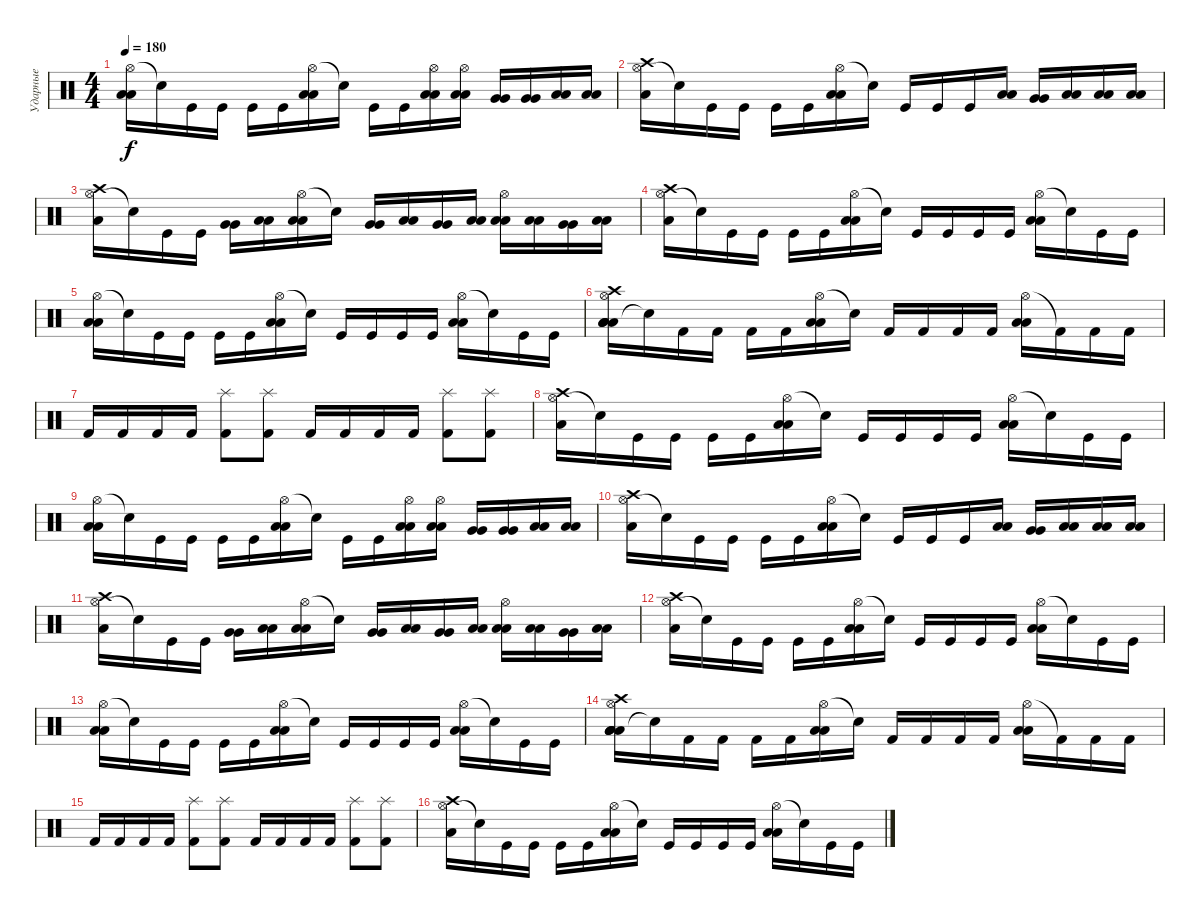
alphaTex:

\track ("Ударные" "Ударные") {instrument percussion}
\staff {score}
\articulation defaults
\ts (4 4)
\tempo 180
\clef neutral
\ks c
("Hi-Hat (open)" "Low Tom (hit)" "Low Tom (hit)").16{dy f} "Snare (hit)"{t}.16 "Kick (hit)".16 "Kick (hit)".16 "Kick (hit)".16 "Kick (hit)".16 ("Hi-Hat (open)" "Low Tom (hit)" "Low Tom (hit)").16 "Snare (hit)"{t}.16 "Kick (hit)".16 "Kick (hit)".16 ("Hi-Hat (open)" "Low Tom (hit)" "Low Tom (hit)").16 ("Hi-Hat (open)" "Low Tom (hit)" "Low Tom (hit)").16 ("Very Low Tom (hit)" "Very Low Tom (hit)").16{balance 10} ("Very Low Tom (hit)" "Very Low Tom (hit)").16 ("Low Floor Tom (hit)" "Low Floor Tom (hit)").16{balance 6} ("Low Floor Tom (hit)" "Low Floor Tom (hit)").16 |
("Hi-Hat (open)" "Crash high (hit)" "Low Tom (hit)").16{balance 8} "Snare (hit)"{t}.16 "Kick (hit)".16 "Kick (hit)".16 "Kick (hit)".16 "Kick (hit)".16 ("Hi-Hat (open)" "Low Tom (hit)" "Low Tom (hit)").16 "Snare (hit)"{t}.16 "Kick (hit)".16 "Kick (hit)".16 "Kick (hit)".16 ("Low Tom (hit)" "Low Tom (hit)").16 ("Very Low Tom (hit)" "Very Low Tom (hit)").16{balance 10} ("Low Floor Tom (hit)" "Low Floor Tom (hit)").16{balance 6} ("Low Floor Tom (hit)" "Low Floor Tom (hit)").16 ("Low Floor Tom (hit)" "Low Floor Tom (hit)").16 |
("Hi-Hat (open)" "Crash high (hit)" "Low Tom (hit)").16{volume 13 balance 8} "Snare (hit)"{t}.16 "Kick (hit)".16 "Kick (hit)".16 ("Very Low Tom (hit)" "Very Low Tom (hit)").16{balance 10} ("Low Floor Tom (hit)" "Low Floor Tom (hit)").16{balance 5} ("Hi-Hat (open)" "Low Tom (hit)" "Low Tom (hit)").16{balance 8} "Snare (hit)"{t}.16 ("Very Low Tom (hit)" "Very Low Tom (hit)").16{balance 10} ("Low Floor Tom (hit)" "Low Floor Tom (hit)").16 ("Very Low Tom (hit)" "Very Low Tom (hit)").16{balance 10} ("Low Floor Tom (hit)" "Low Floor Tom (hit)").16 ("Hi-Hat (open)" "Low Tom (hit)" "Low Tom (hit)").16{balance 8} ("Low Floor Tom (hit)" "Low Floor Tom (hit)").16{balance 6} ("Very Low Tom (hit)" "Very Low Tom (hit)").16 ("Low Floor Tom (hit)" "Low Floor Tom (hit)").16{balance 5} |
("Hi-Hat (open)" "Crash high (hit)" "Low Tom (hit)").16{volume 13} "Snare (hit)"{t}.16 "Kick (hit)".16 "Kick (hit)".16 "Kick (hit)".16 "Kick (hit)".16 ("Hi-Hat (open)" "Low Tom (hit)" "Low Tom (hit)").16 "Snare (hit)"{t}.16 "Kick (hit)".16 "Kick (hit)".16 "Kick (hit)".16 "Kick (hit)".16 ("Hi-Hat (open)" "Low Tom (hit)" "Low Tom (hit)").16 "Snare (hit)"{t}.16 "Kick (hit)".16 "Kick (hit)".16 |
("Hi-Hat (open)" "Low Tom (hit)" "Low Tom (hit)").16 "Snare (hit)"{t}.16 "Kick (hit)".16 "Kick (hit)".16 "Kick (hit)".16 "Kick (hit)".16 ("Hi-Hat (open)" "Low Tom (hit)" "Low Tom (hit)").16 "Snare (hit)"{t}.16 "Kick (hit)".16 "Kick (hit)".16 "Kick (hit)".16 "Kick (hit)".16 ("Hi-Hat (open)" "Low Tom (hit)" "Low Tom (hit)").16 "Snare (hit)"{t}.16 "Kick (hit)".16 "Kick (hit)".16 |
("Low Floor Tom (hit)" "Hi-Hat (open)" "Crash high (hit)" "Low Tom (hit)" "Low Floor Tom (hit)" "Low Floor Tom (hit)").16 "Snare (hit)"{t}.16 "Kick (hit) 2".16 "Kick (hit) 2".16 "Kick (hit) 2".16 "Kick (hit) 2".16 ("Hi-Hat (open)" "Low Tom (hit)" "Low Tom (hit)").16 "Snare (hit)"{t}.16 "Kick (hit) 2".16 "Kick (hit) 2".16 "Kick (hit) 2".16 "Kick (hit) 2".16 ("Hi-Hat (open)" "Low Tom (hit)" "Low Tom (hit)").16 "Kick (hit) 2"{t}.16 "Kick (hit) 2".16 "Kick (hit) 2".16 |
"Kick (hit) 2".16 "Kick (hit) 2".16 "Kick (hit) 2".16 "Kick (hit) 2".16 ("Splash (hit)" "Kick (hit) 2").8 ("Splash (hit)" "Kick (hit) 2").8 "Kick (hit) 2".16 "Kick (hit) 2".16 "Kick (hit) 2".16 "Kick (hit) 2".16 ("Splash (hit)" "Kick (hit) 2").8 ("Splash (hit)" "Kick (hit) 2").8 |
("Hi-Hat (open)" "Crash high (hit)" "Low Tom (hit)").16{volume 13} "Snare (hit)"{t}.16 "Kick (hit)".16 "Kick (hit)".16 "Kick (hit)".16 "Kick (hit)".16 ("Hi-Hat (open)" "Low Tom (hit)" "Low Tom (hit)").16 "Snare (hit)"{t}.16 "Kick (hit)".16 "Kick (hit)".16 "Kick (hit)".16 "Kick (hit)".16 ("Hi-Hat (open)" "Low Tom (hit)" "Low Tom (hit)").16 "Snare (hit)"{t}.16 "Kick (hit)".16 "Kick (hit)".16 |
("Hi-Hat (open)" "Low Tom (hit)" "Low Tom (hit)").16 "Snare (hit)"{t}.16 "Kick (hit)".16 "Kick (hit)".16 "Kick (hit)".16 "Kick (hit)".16 ("Hi-Hat (open)" "Low Tom (hit)" "Low Tom (hit)").16 "Snare (hit)"{t}.16 "Kick (hit)".16 "Kick (hit)".16 ("Hi-Hat (open)" "Low Tom (hit)" "Low Tom (hit)").16 ("Hi-Hat (open)" "Low Tom (hit)" "Low Tom (hit)").16 ("Very Low Tom (hit)" "Very Low Tom (hit)").16{balance 10} ("Very Low Tom (hit)" "Very Low Tom (hit)").16 ("Low Floor Tom (hit)" "Low Floor Tom (hit)").16{balance 6} ("Low Floor Tom (hit)" "Low Floor Tom (hit)").16 |
("Hi-Hat (open)" "Crash high (hit)" "Low Tom (hit)").16{balance 8} "Snare (hit)"{t}.16 "Kick (hit)".16 "Kick (hit)".16 "Kick (hit)".16 "Kick (hit)".16 ("Hi-Hat (open)" "Low Tom (hit)" "Low Tom (hit)").16 "Snare (hit)"{t}.16 "Kick (hit)".16 "Kick (hit)".16 "Kick (hit)".16 ("Low Tom (hit)" "Low Tom (hit)").16 ("Very Low Tom (hit)" "Very Low Tom (hit)").16{balance 10} ("Low Floor Tom (hit)" "Low Floor Tom (hit)").16{balance 6} ("Low Floor Tom (hit)" "Low Floor Tom (hit)").16 ("Low Floor Tom (hit)" "Low Floor Tom (hit)").16 |
("Hi-Hat (open)" "Crash high (hit)" "Low Tom (hit)").16{volume 13 balance 8} "Snare (hit)"{t}.16 "Kick (hit)".16 "Kick (hit)".16 ("Very Low Tom (hit)" "Very Low Tom (hit)").16{balance 10} ("Low Floor Tom (hit)" "Low Floor Tom (hit)").16{balance 5} ("Hi-Hat (open)" "Low Tom (hit)" "Low Tom (hit)").16{balance 8} "Snare (hit)"{t}.16 ("Very Low Tom (hit)" "Very Low Tom (hit)").16{balance 10} ("Low Floor Tom (hit)" "Low Floor Tom (hit)").16 ("Very Low Tom (hit)" "Very Low Tom (hit)").16{balance 10} ("Low Floor Tom (hit)" "Low Floor Tom (hit)").16 ("Hi-Hat (open)" "Low Tom (hit)" "Low Tom (hit)").16{balance 8} ("Low Floor Tom (hit)" "Low Floor Tom (hit)").16{balance 6} ("Very Low Tom (hit)" "Very Low Tom (hit)").16 ("Low Floor Tom (hit)" "Low Floor Tom (hit)").16{balance 5} |
("Hi-Hat (open)" "Crash high (hit)" "Low Tom (hit)").16{volume 13} "Snare (hit)"{t}.16 "Kick (hit)".16 "Kick (hit)".16 "Kick (hit)".16 "Kick (hit)".16 ("Hi-Hat (open)" "Low Tom (hit)" "Low Tom (hit)").16 "Snare (hit)"{t}.16 "Kick (hit)".16 "Kick (hit)".16 "Kick (hit)".16 "Kick (hit)".16 ("Hi-Hat (open)" "Low Tom (hit)" "Low Tom (hit)").16 "Snare (hit)"{t}.16 "Kick (hit)".16 "Kick (hit)".16 |
("Hi-Hat (open)" "Low Tom (hit)" "Low Tom (hit)").16 "Snare (hit)"{t}.16 "Kick (hit)".16 "Kick (hit)".16 "Kick (hit)".16 "Kick (hit)".16 ("Hi-Hat (open)" "Low Tom (hit)" "Low Tom (hit)").16 "Snare (hit)"{t}.16 "Kick (hit)".16 "Kick (hit)".16 "Kick (hit)".16 "Kick (hit)".16 ("Hi-Hat (open)" "Low Tom (hit)" "Low Tom (hit)").16 "Snare (hit)"{t}.16 "Kick (hit)".16 "Kick (hit)".16 |
("Low Floor Tom (hit)" "Hi-Hat (open)" "Crash high (hit)" "Low Tom (hit)" "Low Floor Tom (hit)" "Low Floor Tom (hit)").16 "Snare (hit)"{t}.16 "Kick (hit) 2".16 "Kick (hit) 2".16 "Kick (hit) 2".16 "Kick (hit) 2".16 ("Hi-Hat (open)" "Low Tom (hit)" "Low Tom (hit)").16 "Snare (hit)"{t}.16 "Kick (hit) 2".16 "Kick (hit) 2".16 "Kick (hit) 2".16 "Kick (hit) 2".16 ("Hi-Hat (open)" "Low Tom (hit)" "Low Tom (hit)").16 "Kick (hit) 2"{t}.16 "Kick (hit) 2".16 "Kick (hit) 2".16 |
"Kick (hit) 2".16 "Kick (hit) 2".16 "Kick (hit) 2".16 "Kick (hit) 2".16 ("Splash (hit)" "Kick (hit) 2").8 ("Splash (hit)" "Kick (hit) 2").8 "Kick (hit) 2".16 "Kick (hit) 2".16 "Kick (hit) 2".16 "Kick (hit) 2".16 ("Splash (hit)" "Kick (hit) 2").8 ("Splash (hit)" "Kick (hit) 2").8 |
("Hi-Hat (open)" "Crash high (hit)" "Low Tom (hit)").16{volume 13} "Snare (hit)"{t}.16 "Kick (hit)".16 "Kick (hit)".16 "Kick (hit)".16 "Kick (hit)".16 ("Hi-Hat (open)" "Low Tom (hit)" "Low Tom (hit)").16 "Snare (hit)"{t}.16 "Kick (hit)".16 "Kick (hit)".16 "Kick (hit)".16 "Kick (hit)".16 ("Hi-Hat (open)" "Low Tom (hit)" "Low Tom (hit)").16 "Snare (hit)"{t}.16 "Kick (hit)".16 "Kick (hit)".16
